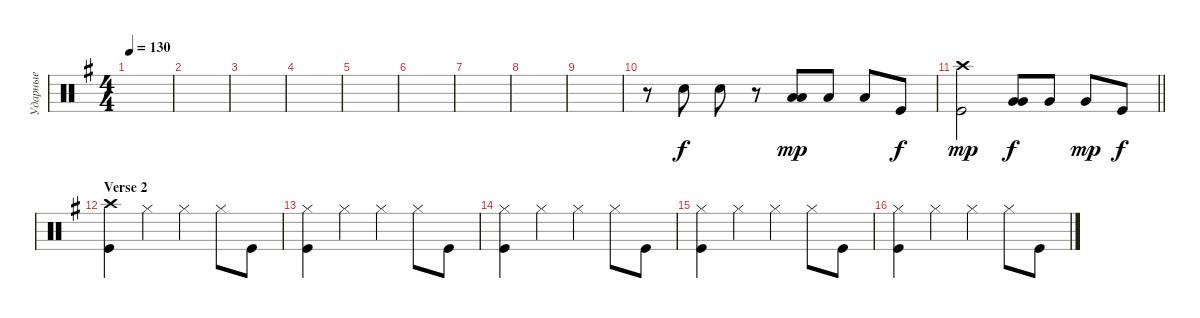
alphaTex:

\track ("Ударные" "Ударные") {instrument percussion}
\staff {score}
\articulation defaults
\ts (4 4)
\tempo 130
\clef neutral
\ks eminor
|
|
|
|
|
|
|
|
|
r.8 "Snare (hit) 2".8 "Snare (hit) 2".8 r.8 ("Low Tom (hit)" "Low Tom (hit)").8{dy mp} "Low Tom (hit)".8 "Low Tom (hit)".8 "Kick (hit)".8{dy f} |
\barLineRight lightlight
("Kick (hit)" "Crash high (hit)").2{dy mp} ("Very Low Tom (hit)" "Very Low Tom (hit)").8{bd 120 dy f} "Very Low Tom (hit)".8 "Very Low Tom (hit)".8{dy mp} "Kick (hit)".8{dy f} |
\section ("" "Verse 2")
("Kick (hit)" "Crash high (hit)").4 "Hi-Hat (closed)".4 "Hi-Hat (closed)".4 "Hi-Hat (closed)".8 "Kick (hit)".8 |
("Kick (hit)" "Hi-Hat (closed)").4 "Hi-Hat (closed)".4 "Hi-Hat (closed)".4 "Hi-Hat (closed)".8 "Kick (hit)".8 |
("Kick (hit)" "Hi-Hat (closed)").4 "Hi-Hat (closed)".4 "Hi-Hat (closed)".4 "Hi-Hat (closed)".8 "Kick (hit)".8 |
("Kick (hit)" "Hi-Hat (closed)").4 "Hi-Hat (closed)".4 "Hi-Hat (closed)".4 "Hi-Hat (closed)".8 "Kick (hit)".8 |
("Kick (hit)" "Hi-Hat (closed)").4 "Hi-Hat (closed)".4 "Hi-Hat (closed)".4 "Hi-Hat (closed)".8 "Kick (hit)".8
